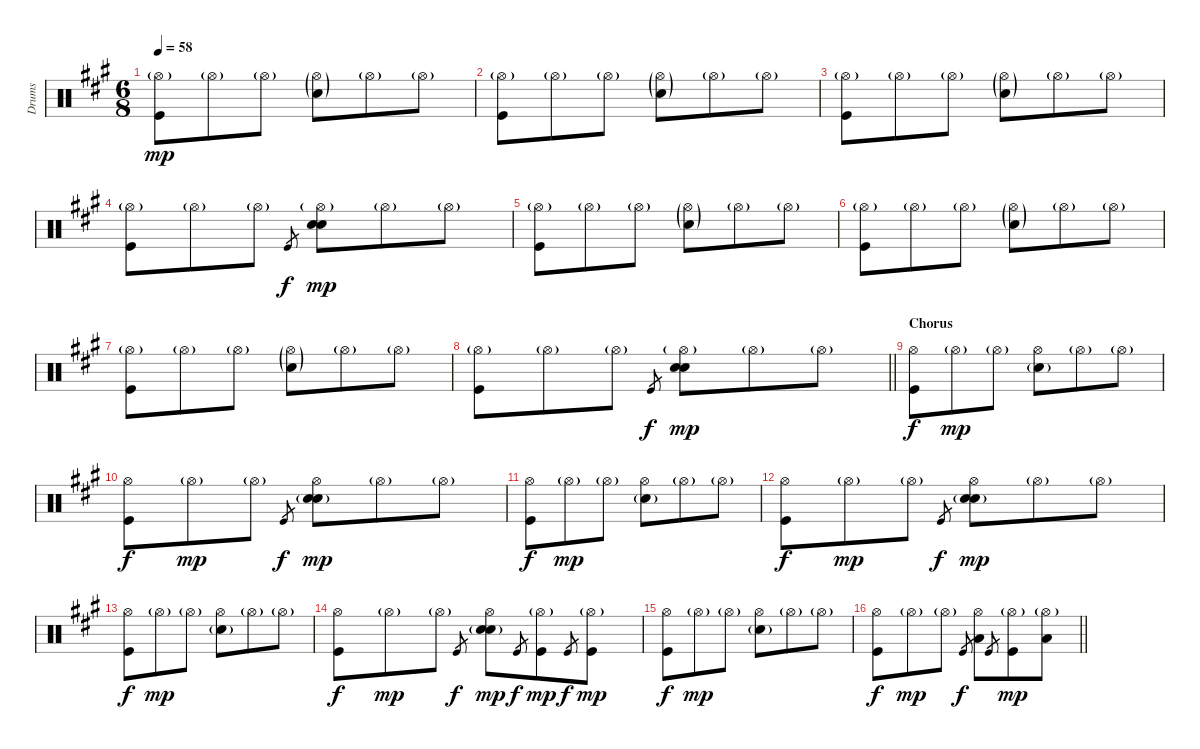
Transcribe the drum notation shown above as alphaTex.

\track ("Drums" "Drums") {instrument percussion}
\staff {score}
\articulation defaults
\ts (6 8)
\tempo 58
\clef neutral
\ks a
("Hi-Hat (open)"{g} "Kick (hit)").8{dy mp} "Hi-Hat (open)"{g}.8 "Hi-Hat (open)"{g}.8 ("Hi-Hat (open)"{g} "Snare (hit) 2"{g}).8 "Hi-Hat (open)"{g}.8 "Hi-Hat (open)"{g}.8 |
("Hi-Hat (open)"{g} "Kick (hit)").8 "Hi-Hat (open)"{g}.8 "Hi-Hat (open)"{g}.8 ("Hi-Hat (open)"{g} "Snare (hit) 2"{g}).8 "Hi-Hat (open)"{g}.8 "Hi-Hat (open)"{g}.8 |
("Hi-Hat (open)"{g} "Kick (hit)").8 "Hi-Hat (open)"{g}.8 "Hi-Hat (open)"{g}.8 ("Hi-Hat (open)"{g} "Snare (hit) 2"{g}).8 "Hi-Hat (open)"{g}.8 "Hi-Hat (open)"{g}.8 |
("Hi-Hat (open)"{g} "Kick (hit)").8 "Hi-Hat (open)"{g}.8 "Hi-Hat (open)"{g}.8 "Kick (hit)".8{gr dy f} ("Hi-Hat (open)"{g} "Electric Snare (hit)" "Snare (hit) 2").8{dy mp} "Hi-Hat (open)"{g}.8 "Hi-Hat (open)"{g}.8 |
("Hi-Hat (open)"{g} "Kick (hit)").8 "Hi-Hat (open)"{g}.8 "Hi-Hat (open)"{g}.8 ("Hi-Hat (open)"{g} "Snare (hit) 2"{g}).8 "Hi-Hat (open)"{g}.8 "Hi-Hat (open)"{g}.8 |
("Hi-Hat (open)"{g} "Kick (hit)").8 "Hi-Hat (open)"{g}.8 "Hi-Hat (open)"{g}.8 ("Hi-Hat (open)"{g} "Snare (hit) 2"{g}).8 "Hi-Hat (open)"{g}.8 "Hi-Hat (open)"{g}.8 |
("Hi-Hat (open)"{g} "Kick (hit)").8 "Hi-Hat (open)"{g}.8 "Hi-Hat (open)"{g}.8 ("Hi-Hat (open)"{g} "Snare (hit) 2"{g}).8 "Hi-Hat (open)"{g}.8 "Hi-Hat (open)"{g}.8 |
\barLineRight lightlight
("Hi-Hat (open)"{g} "Kick (hit)").8 "Hi-Hat (open)"{g}.8 "Hi-Hat (open)"{g}.8 "Kick (hit)".8{gr dy f} ("Hi-Hat (open)"{g} "Electric Snare (hit)" "Snare (hit) 2").8{dy mp} "Hi-Hat (open)"{g}.8 "Hi-Hat (open)"{g}.8 |
\section ("" "Chorus")
("Hi-Hat (open)" "Kick (hit)").8{dy f} "Hi-Hat (open)"{g}.8{dy mp} "Hi-Hat (open)"{g}.8 ("Hi-Hat (open)" "Snare (hit) 2"{g}).8 "Hi-Hat (open)"{g}.8 "Hi-Hat (open)"{g}.8 |
("Hi-Hat (open)" "Kick (hit)").8{dy f} "Hi-Hat (open)"{g}.8{dy mp} "Hi-Hat (open)"{g}.8 "Kick (hit)".8{gr dy f} ("Hi-Hat (open)" "Electric Snare (hit)" "Snare (hit) 2"{g}).8{dy mp} "Hi-Hat (open)"{g}.8 "Hi-Hat (open)"{g}.8 |
("Hi-Hat (open)" "Kick (hit)").8{dy f} "Hi-Hat (open)"{g}.8{dy mp} "Hi-Hat (open)"{g}.8 ("Hi-Hat (open)" "Snare (hit) 2"{g}).8 "Hi-Hat (open)"{g}.8 "Hi-Hat (open)"{g}.8 |
("Hi-Hat (open)" "Kick (hit)").8{dy f} "Hi-Hat (open)"{g}.8{dy mp} "Hi-Hat (open)"{g}.8 "Kick (hit)".8{gr dy f} ("Hi-Hat (open)" "Electric Snare (hit)" "Snare (hit) 2"{g}).8{dy mp} "Hi-Hat (open)"{g}.8 "Hi-Hat (open)"{g}.8 |
("Hi-Hat (open)" "Kick (hit)").8{dy f} "Hi-Hat (open)"{g}.8{dy mp} "Hi-Hat (open)"{g}.8 ("Hi-Hat (open)" "Snare (hit) 2"{g}).8 "Hi-Hat (open)"{g}.8 "Hi-Hat (open)"{g}.8 |
("Hi-Hat (open)" "Kick (hit)").8{dy f} "Hi-Hat (open)"{g}.8{dy mp} "Hi-Hat (open)"{g}.8 "Kick (hit)".8{gr dy f} ("Hi-Hat (open)" "Electric Snare (hit)" "Snare (hit) 2"{g}).8{dy mp} "Kick (hit)".8{gr dy f} ("Hi-Hat (open)"{g} "Kick (hit)").8{dy mp} "Kick (hit)".8{gr dy f} ("Hi-Hat (open)"{g} "Kick (hit)").8{dy mp} |
("Hi-Hat (open)" "Kick (hit)").8{dy f} "Hi-Hat (open)"{g}.8{dy mp} "Hi-Hat (open)"{g}.8 ("Hi-Hat (open)" "Snare (hit) 2"{g}).8 "Hi-Hat (open)"{g}.8 "Hi-Hat (open)"{g}.8 |
\barLineRight lightlight
("Hi-Hat (open)" "Kick (hit)").8{dy f} "Hi-Hat (open)"{g}.8{dy mp} "Hi-Hat (open)"{g}.8 "Kick (hit)".8{gr dy f} ("Hi-Hat (open)" "Low Floor Tom (hit)").8 "Kick (hit)".8{gr} ("Hi-Hat (open)"{g} "Kick (hit)").8{dy mp} ("Hi-Hat (open)"{g} "Low Floor Tom (hit)").8
